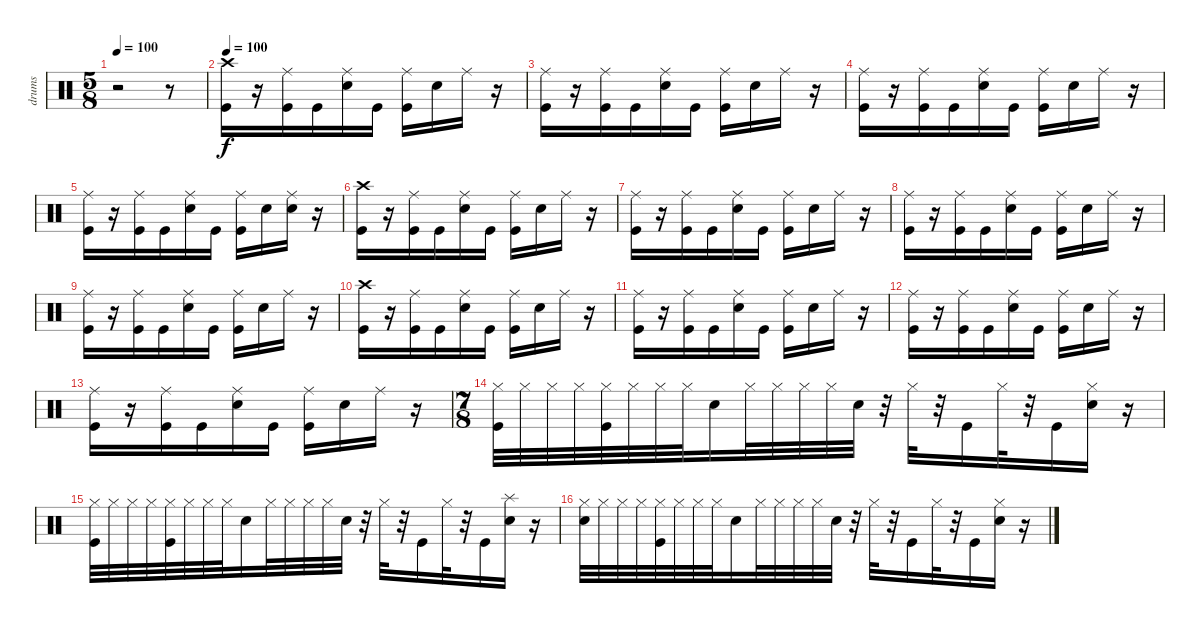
\track ("drums" "drums") {instrument percussion}
\staff {score}
\articulation defaults
\ts (5 8)
\tempo 100
\clef neutral
\ks c
r.2{dy f} r.8 |
\tempo 100
("Crash high (hit)" "Kick (hit)").16 r.16 ("Kick (hit)" "Ride (middle)").16 "Kick (hit)".16 ("Ride (middle)" "Electric Snare (hit)").16 "Kick (hit)".16 ("Kick (hit)" "Ride (middle)").16 "Electric Snare (hit)".16 "Ride (middle)".16 r.16 |
("Kick (hit)" "Ride (middle)").16 r.16 ("Ride (middle)" "Kick (hit)").16 "Kick (hit)".16 ("Ride (middle)" "Electric Snare (hit)").16 "Kick (hit)".16 ("Kick (hit)" "Ride (middle)").16 "Electric Snare (hit)".16 "Ride (middle)".16 r.16 |
("Ride (middle)" "Kick (hit)").16 r.16 ("Kick (hit)" "Ride (middle)").16 "Kick (hit)".16 ("Ride (middle)" "Electric Snare (hit)").16 "Kick (hit)".16 ("Kick (hit)" "Ride (middle)").16 "Electric Snare (hit)".16 "Ride (middle)".16 r.16 |
("Ride (middle)" "Kick (hit)").16 r.16 ("Ride (middle)" "Kick (hit)").16 "Kick (hit)".16 ("Electric Snare (hit)" "Ride (middle)").16 "Kick (hit)".16 ("Ride (middle)" "Kick (hit)").16 "Electric Snare (hit)".16 ("Electric Snare (hit)" "Ride (middle)").16 r.16 |
("Crash high (hit)" "Kick (hit)").16 r.16 ("Kick (hit)" "Ride (middle)").16 "Kick (hit)".16 ("Ride (middle)" "Electric Snare (hit)").16 "Kick (hit)".16 ("Kick (hit)" "Ride (middle)").16 "Electric Snare (hit)".16 "Ride (middle)".16 r.16 |
("Kick (hit)" "Ride (middle)").16 r.16 ("Ride (middle)" "Kick (hit)").16 "Kick (hit)".16 ("Ride (middle)" "Electric Snare (hit)").16 "Kick (hit)".16 ("Kick (hit)" "Ride (middle)").16 "Electric Snare (hit)".16 "Ride (middle)".16 r.16 |
("Ride (middle)" "Kick (hit)").16 r.16 ("Kick (hit)" "Ride (middle)").16 "Kick (hit)".16 ("Ride (middle)" "Electric Snare (hit)").16 "Kick (hit)".16 ("Kick (hit)" "Ride (middle)").16 "Electric Snare (hit)".16 "Ride (middle)".16 r.16 |
("Ride (middle)" "Kick (hit)").16 r.16 ("Ride (middle)" "Kick (hit)").16 "Kick (hit)".16 ("Electric Snare (hit)" "Ride (middle)").16 "Kick (hit)".16 ("Ride (middle)" "Kick (hit)").16 "Electric Snare (hit)".16 "Ride (middle)".16 r.16 |
("Crash high (hit)" "Kick (hit)").16 r.16 ("Kick (hit)" "Ride (middle)").16 "Kick (hit)".16 ("Ride (middle)" "Electric Snare (hit)").16 "Kick (hit)".16 ("Kick (hit)" "Ride (middle)").16 "Electric Snare (hit)".16 "Ride (middle)".16 r.16 |
("Kick (hit)" "Ride (middle)").16 r.16 ("Ride (middle)" "Kick (hit)").16 "Kick (hit)".16 ("Ride (middle)" "Electric Snare (hit)").16 "Kick (hit)".16 ("Kick (hit)" "Ride (middle)").16 "Electric Snare (hit)".16 "Ride (middle)".16 r.16 |
("Ride (middle)" "Kick (hit)").16 r.16 ("Kick (hit)" "Ride (middle)").16 "Kick (hit)".16 ("Ride (middle)" "Electric Snare (hit)").16 "Kick (hit)".16 ("Kick (hit)" "Ride (middle)").16 "Electric Snare (hit)".16 "Ride (middle)".16 r.16 |
("Ride (middle)" "Kick (hit)").16 r.16 ("Ride (middle)" "Kick (hit)").16 "Kick (hit)".16 ("Electric Snare (hit)" "Ride (middle)").16 "Kick (hit)".16 ("Ride (middle)" "Kick (hit)").16 "Electric Snare (hit)".16 "Ride (middle)".16 r.16 |
\ts (7 8)
("Hi-Hat (closed)" "Kick (hit)").32 "Hi-Hat (closed)".32 "Hi-Hat (closed)".32 "Hi-Hat (closed)".32 ("Kick (hit)" "Hi-Hat (closed)").32 "Hi-Hat (closed)".32 "Hi-Hat (closed)".32 "Hi-Hat (closed)".32 "Electric Snare (hit)".16 "Hi-Hat (closed)".32 "Hi-Hat (closed)".32 "Hi-Hat (closed)".32 "Hi-Hat (closed)".32 "Electric Snare (hit)".32 r.32 "Hi-Hat (closed)".32 r.32 "Kick (hit)".16 "Hi-Hat (closed)".32 r.32 "Kick (hit)".16 ("Hi-Hat (closed)" "Electric Snare (hit)").16 r.16 |
("Kick (hit)" "Hi-Hat (closed)").32 "Hi-Hat (closed)".32 "Hi-Hat (closed)".32 "Hi-Hat (closed)".32 ("Kick (hit)" "Hi-Hat (closed)").32 "Hi-Hat (closed)".32 "Hi-Hat (closed)".32 "Hi-Hat (closed)".32 "Electric Snare (hit)".16 "Hi-Hat (closed)".32 "Hi-Hat (closed)".32 "Hi-Hat (closed)".32 "Hi-Hat (closed)".32 "Electric Snare (hit)".32 r.32 "Hi-Hat (closed)".32 r.32 "Kick (hit)".16 "Hi-Hat (closed)".32 r.32 "Kick (hit)".16 ("Electric Snare (hit)" "Splash (hit)").16 r.16 |
("Hi-Hat (closed)" "Electric Snare (hit)").32 "Hi-Hat (closed)".32 "Hi-Hat (closed)".32 "Hi-Hat (closed)".32 ("Kick (hit)" "Hi-Hat (closed)").32 "Hi-Hat (closed)".32 "Hi-Hat (closed)".32 "Hi-Hat (closed)".32 "Electric Snare (hit)".16 "Hi-Hat (closed)".32 "Hi-Hat (closed)".32 "Hi-Hat (closed)".32 "Hi-Hat (closed)".32 "Electric Snare (hit)".32 r.32 "Hi-Hat (closed)".32 r.32 "Kick (hit)".16 "Hi-Hat (closed)".32 r.32 "Kick (hit)".16 ("Electric Snare (hit)" "Hi-Hat (closed)").16 r.16
